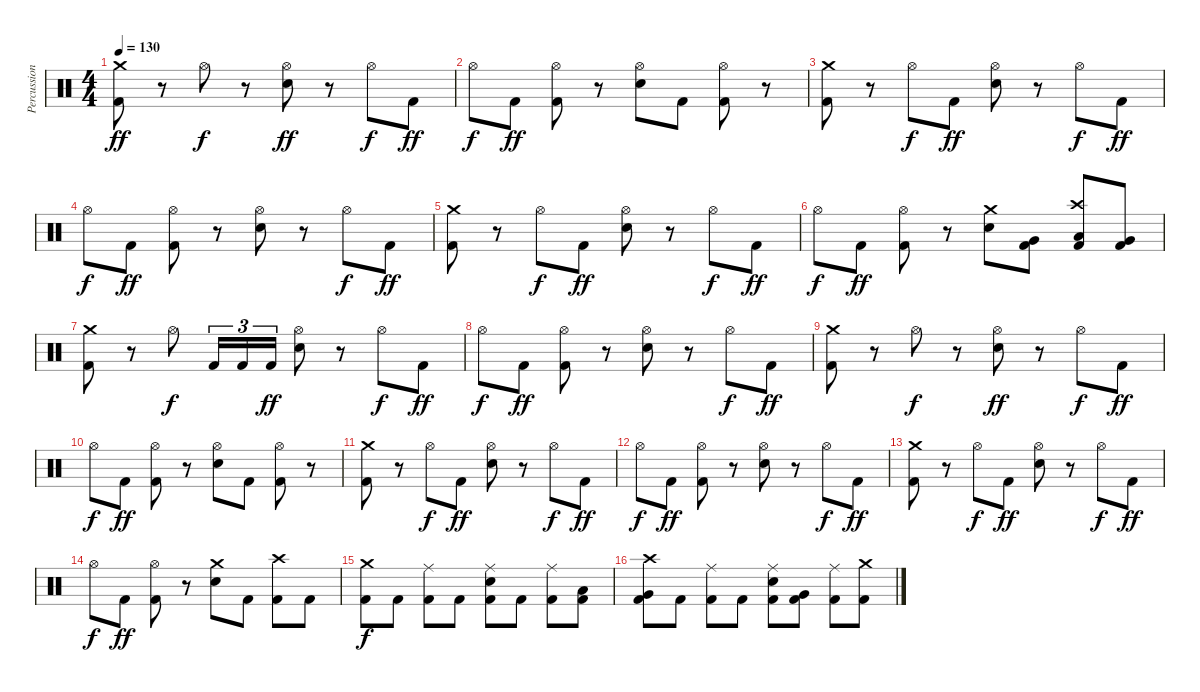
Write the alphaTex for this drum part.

\track ("Percussion" "Percussion") {instrument percussion}
\staff {score}
\articulation defaults
\ts (4 4)
\tempo 130
\clef neutral
\ks c
("Crash medium (hit)" "Kick (hit) 2").8{dy ff} r.8 "Hi-Hat (open)".8{dy f} r.8 ("Hi-Hat (open)" "Electric Snare (hit)").8{dy ff} r.8 "Hi-Hat (open)".8{dy f} "Kick (hit) 2".8{dy ff} |
"Hi-Hat (open)".8{dy f} "Kick (hit) 2".8{dy ff} ("Hi-Hat (open)" "Kick (hit) 2").8 r.8 ("Hi-Hat (open)" "Electric Snare (hit)").8 "Kick (hit) 2".8 ("Hi-Hat (open)" "Kick (hit) 2").8 r.8 |
("Crash medium (hit)" "Kick (hit) 2").8 r.8 "Hi-Hat (open)".8{dy f} "Kick (hit) 2".8{dy ff} ("Hi-Hat (open)" "Electric Snare (hit)").8 r.8 "Hi-Hat (open)".8{dy f} "Kick (hit) 2".8{dy ff} |
"Hi-Hat (open)".8{dy f} "Kick (hit) 2".8{dy ff} ("Hi-Hat (open)" "Kick (hit) 2").8 r.8 ("Hi-Hat (open)" "Electric Snare (hit)").8 r.8 "Hi-Hat (open)".8{dy f} "Kick (hit) 2".8{dy ff} |
("Crash medium (hit)" "Kick (hit) 2").8 r.8 "Hi-Hat (open)".8{dy f} "Kick (hit) 2".8{dy ff} ("Hi-Hat (open)" "Electric Snare (hit)").8 r.8 "Hi-Hat (open)".8{dy f} "Kick (hit) 2".8{dy ff} |
"Hi-Hat (open)".8{dy f} "Kick (hit) 2".8{dy ff} ("Hi-Hat (open)" "Kick (hit) 2").8 r.8 ("Crash medium (hit)" "Electric Snare (hit)").8 ("Very Low Tom (hit)" "Kick (hit) 2").8 ("Crash high (hit)" "Low Tom (hit)" "Kick (hit) 2").8 ("Very Low Tom (hit)" "Kick (hit) 2").8 |
("Crash medium (hit)" "Kick (hit) 2").8 r.8 "Hi-Hat (open)".8{dy f} "Kick (hit) 2".16{tu (3 2)} "Kick (hit) 2".16{tu (3 2)} "Kick (hit) 2".16{tu (3 2) dy ff} ("Hi-Hat (open)" "Electric Snare (hit)").8 r.8 "Hi-Hat (open)".8{dy f} "Kick (hit) 2".8{dy ff} |
"Hi-Hat (open)".8{dy f} "Kick (hit) 2".8{dy ff} ("Hi-Hat (open)" "Kick (hit) 2").8 r.8 ("Hi-Hat (open)" "Electric Snare (hit)").8 r.8 "Hi-Hat (open)".8{dy f} "Kick (hit) 2".8{dy ff} |
("Crash medium (hit)" "Kick (hit) 2").8 r.8 "Hi-Hat (open)".8{dy f} r.8 ("Hi-Hat (open)" "Electric Snare (hit)").8{dy ff} r.8 "Hi-Hat (open)".8{dy f} "Kick (hit) 2".8{dy ff} |
"Hi-Hat (open)".8{dy f} "Kick (hit) 2".8{dy ff} ("Hi-Hat (open)" "Kick (hit) 2").8 r.8 ("Hi-Hat (open)" "Electric Snare (hit)").8 "Kick (hit) 2".8 ("Hi-Hat (open)" "Kick (hit) 2").8 r.8 |
("Crash medium (hit)" "Kick (hit) 2").8 r.8 "Hi-Hat (open)".8{dy f} "Kick (hit) 2".8{dy ff} ("Hi-Hat (open)" "Electric Snare (hit)").8 r.8 "Hi-Hat (open)".8{dy f} "Kick (hit) 2".8{dy ff} |
"Hi-Hat (open)".8{dy f} "Kick (hit) 2".8{dy ff} ("Hi-Hat (open)" "Kick (hit) 2").8 r.8 ("Hi-Hat (open)" "Electric Snare (hit)").8 r.8 "Hi-Hat (open)".8{dy f} "Kick (hit) 2".8{dy ff} |
("Crash medium (hit)" "Kick (hit) 2").8 r.8 "Hi-Hat (open)".8{dy f} "Kick (hit) 2".8{dy ff} ("Hi-Hat (open)" "Electric Snare (hit)").8 r.8 "Hi-Hat (open)".8{dy f} "Kick (hit) 2".8{dy ff} |
"Hi-Hat (open)".8{dy f} "Kick (hit) 2".8{dy ff} ("Hi-Hat (open)" "Kick (hit) 2").8 r.8 ("Crash medium (hit)" "Electric Snare (hit)").8 "Kick (hit) 2".8 ("Crash high (hit)" "Kick (hit) 2").8 "Kick (hit) 2".8 |
("Crash medium (hit)" "Kick (hit) 2").8{dy f} "Kick (hit) 2".8 ("Ride (middle)" "Kick (hit) 2").8 "Kick (hit) 2".8 ("Ride (middle)" "Electric Snare (hit)" "Kick (hit) 2").8 "Kick (hit) 2".8 ("Ride (middle)" "Kick (hit) 2").8 ("Low Tom (hit)" "Kick (hit) 2").8 |
("Crash high (hit)" "Very Low Tom (hit)" "Kick (hit) 2").8 "Kick (hit) 2".8 ("Ride (middle)" "Kick (hit) 2").8 "Kick (hit) 2".8 ("Ride (middle)" "Electric Snare (hit)" "Kick (hit) 2").8 ("Very Low Tom (hit)" "Kick (hit) 2").8 ("Ride (middle)" "Kick (hit) 2").8 ("Crash medium (hit)" "Kick (hit) 2").8
